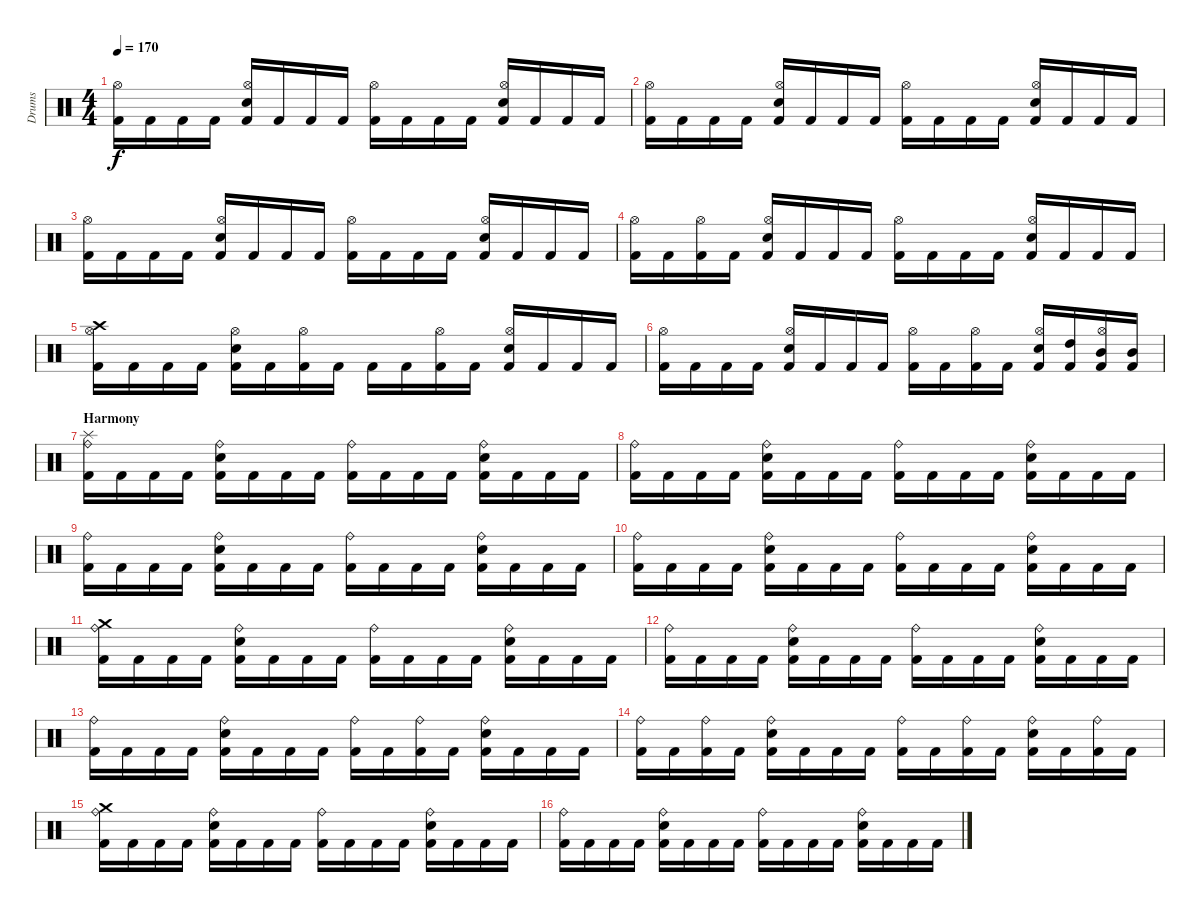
\track ("Drums" "Drums") {instrument percussion}
\staff {score}
\articulation defaults
\ts (4 4)
\tempo 170
\clef neutral
\ks c
("Kick (hit) 2" "Hi-Hat (open)").16{dy f} "Kick (hit) 2".16 "Kick (hit) 2".16 "Kick (hit) 2".16 ("Kick (hit) 2" "Snare (hit) 2" "Hi-Hat (open)").16 "Kick (hit) 2".16 "Kick (hit) 2".16 "Kick (hit) 2".16 ("Kick (hit) 2" "Hi-Hat (open)").16 "Kick (hit) 2".16 "Kick (hit) 2".16 "Kick (hit) 2".16 ("Kick (hit) 2" "Snare (hit) 2" "Hi-Hat (open)").16 "Kick (hit) 2".16 "Kick (hit) 2".16 "Kick (hit) 2".16 |
("Kick (hit) 2" "Hi-Hat (open)").16 "Kick (hit) 2".16 "Kick (hit) 2".16 "Kick (hit) 2".16 ("Kick (hit) 2" "Snare (hit) 2" "Hi-Hat (open)").16 "Kick (hit) 2".16 "Kick (hit) 2".16 "Kick (hit) 2".16 ("Kick (hit) 2" "Hi-Hat (open)").16 "Kick (hit) 2".16 "Kick (hit) 2".16 "Kick (hit) 2".16 ("Kick (hit) 2" "Snare (hit) 2" "Hi-Hat (open)").16 "Kick (hit) 2".16 "Kick (hit) 2".16 "Kick (hit) 2".16 |
("Kick (hit) 2" "Hi-Hat (open)").16 "Kick (hit) 2".16 "Kick (hit) 2".16 "Kick (hit) 2".16 ("Kick (hit) 2" "Snare (hit) 2" "Hi-Hat (open)").16 "Kick (hit) 2".16 "Kick (hit) 2".16 "Kick (hit) 2".16 ("Kick (hit) 2" "Hi-Hat (open)").16 "Kick (hit) 2".16 "Kick (hit) 2".16 "Kick (hit) 2".16 ("Kick (hit) 2" "Snare (hit) 2" "Hi-Hat (open)").16 "Kick (hit) 2".16 "Kick (hit) 2".16 "Kick (hit) 2".16 |
("Kick (hit) 2" "Hi-Hat (open)").16 "Kick (hit) 2".16 ("Kick (hit) 2" "Hi-Hat (open)").16 "Kick (hit) 2".16 ("Kick (hit) 2" "Snare (hit) 2" "Hi-Hat (open)").16 "Kick (hit) 2".16 "Kick (hit) 2".16 "Kick (hit) 2".16 ("Kick (hit) 2" "Hi-Hat (open)").16 "Kick (hit) 2".16 "Kick (hit) 2".16 "Kick (hit) 2".16 ("Kick (hit) 2" "Snare (hit) 2" "Hi-Hat (open)").16 "Kick (hit) 2".16 "Kick (hit) 2".16 "Kick (hit) 2".16 |
("Kick (hit) 2" "Hi-Hat (open)" "Crash high (hit)").16 "Kick (hit) 2".16 "Kick (hit) 2".16 "Kick (hit) 2".16 ("Kick (hit) 2" "Snare (hit) 2" "Hi-Hat (open)").16 "Kick (hit) 2".16 ("Kick (hit) 2" "Hi-Hat (open)").16 "Kick (hit) 2".16 "Kick (hit) 2".16 "Kick (hit) 2".16 ("Kick (hit) 2" "Hi-Hat (open)").16 "Kick (hit) 2".16 ("Kick (hit) 2" "Snare (hit) 2" "Hi-Hat (open)").16 "Kick (hit) 2".16 "Kick (hit) 2".16 "Kick (hit) 2".16 |
("Kick (hit) 2" "Hi-Hat (open)").16 "Kick (hit) 2".16 "Kick (hit) 2".16 "Kick (hit) 2".16 ("Kick (hit) 2" "Snare (hit) 2" "Hi-Hat (open)").16 "Kick (hit) 2".16 "Kick (hit) 2".16 "Kick (hit) 2".16 ("Kick (hit) 2" "Hi-Hat (open)").16 "Kick (hit) 2".16 ("Kick (hit) 2" "Hi-Hat (open)").16 "Kick (hit) 2".16 ("Kick (hit) 2" "Snare (hit) 2" "Hi-Hat (open)").16 ("Kick (hit) 2" "High Tom (hit)").16 ("Kick (hit) 2" "Mid Tom (hit)" "Hi-Hat (open)").16 ("Kick (hit) 2" "Mid Tom (hit)").16 |
\section ("" "Harmony")
("Kick (hit) 2" "Ride (bell)" "Splash (hit)").16 "Kick (hit) 2".16 "Kick (hit) 2".16 "Kick (hit) 2".16 ("Kick (hit) 2" "Snare (hit) 2" "Ride (bell)").16 "Kick (hit) 2".16 "Kick (hit) 2".16 "Kick (hit) 2".16 ("Kick (hit) 2" "Ride (bell)").16 "Kick (hit) 2".16 "Kick (hit) 2".16 "Kick (hit) 2".16 ("Kick (hit) 2" "Snare (hit) 2" "Ride (bell)").16 "Kick (hit) 2".16 "Kick (hit) 2".16 "Kick (hit) 2".16 |
("Kick (hit) 2" "Ride (bell)").16 "Kick (hit) 2".16 "Kick (hit) 2".16 "Kick (hit) 2".16 ("Kick (hit) 2" "Snare (hit) 2" "Ride (bell)").16 "Kick (hit) 2".16 "Kick (hit) 2".16 "Kick (hit) 2".16 ("Kick (hit) 2" "Ride (bell)").16 "Kick (hit) 2".16 "Kick (hit) 2".16 "Kick (hit) 2".16 ("Kick (hit) 2" "Snare (hit) 2" "Ride (bell)").16 "Kick (hit) 2".16 "Kick (hit) 2".16 "Kick (hit) 2".16 |
("Kick (hit) 2" "Ride (bell)").16 "Kick (hit) 2".16 "Kick (hit) 2".16 "Kick (hit) 2".16 ("Kick (hit) 2" "Snare (hit) 2" "Ride (bell)").16 "Kick (hit) 2".16 "Kick (hit) 2".16 "Kick (hit) 2".16 ("Kick (hit) 2" "Ride (bell)").16 "Kick (hit) 2".16 "Kick (hit) 2".16 "Kick (hit) 2".16 ("Kick (hit) 2" "Snare (hit) 2" "Ride (bell)").16 "Kick (hit) 2".16 "Kick (hit) 2".16 "Kick (hit) 2".16 |
("Kick (hit) 2" "Ride (bell)").16 "Kick (hit) 2".16 "Kick (hit) 2".16 "Kick (hit) 2".16 ("Kick (hit) 2" "Snare (hit) 2" "Ride (bell)").16 "Kick (hit) 2".16 "Kick (hit) 2".16 "Kick (hit) 2".16 ("Kick (hit) 2" "Ride (bell)").16 "Kick (hit) 2".16 "Kick (hit) 2".16 "Kick (hit) 2".16 ("Kick (hit) 2" "Snare (hit) 2" "Ride (bell)").16 "Kick (hit) 2".16 "Kick (hit) 2".16 "Kick (hit) 2".16 |
("Kick (hit) 2" "Ride (bell)" "Crash medium (hit)").16 "Kick (hit) 2".16 "Kick (hit) 2".16 "Kick (hit) 2".16 ("Kick (hit) 2" "Snare (hit) 2" "Ride (bell)").16 "Kick (hit) 2".16 "Kick (hit) 2".16 "Kick (hit) 2".16 ("Kick (hit) 2" "Ride (bell)").16 "Kick (hit) 2".16 "Kick (hit) 2".16 "Kick (hit) 2".16 ("Kick (hit) 2" "Snare (hit) 2" "Ride (bell)").16 "Kick (hit) 2".16 "Kick (hit) 2".16 "Kick (hit) 2".16 |
("Kick (hit) 2" "Ride (bell)").16 "Kick (hit) 2".16 "Kick (hit) 2".16 "Kick (hit) 2".16 ("Kick (hit) 2" "Snare (hit) 2" "Ride (bell)").16 "Kick (hit) 2".16 "Kick (hit) 2".16 "Kick (hit) 2".16 ("Kick (hit) 2" "Ride (bell)").16 "Kick (hit) 2".16 "Kick (hit) 2".16 "Kick (hit) 2".16 ("Kick (hit) 2" "Snare (hit) 2" "Ride (bell)").16 "Kick (hit) 2".16 "Kick (hit) 2".16 "Kick (hit) 2".16 |
("Kick (hit) 2" "Ride (bell)").16 "Kick (hit) 2".16 "Kick (hit) 2".16 "Kick (hit) 2".16 ("Kick (hit) 2" "Snare (hit) 2" "Ride (bell)").16 "Kick (hit) 2".16 "Kick (hit) 2".16 "Kick (hit) 2".16 ("Kick (hit) 2" "Ride (bell)").16 "Kick (hit) 2".16 ("Kick (hit) 2" "Ride (bell)").16 "Kick (hit) 2".16 ("Kick (hit) 2" "Snare (hit) 2" "Ride (bell)").16 "Kick (hit) 2".16 "Kick (hit) 2".16 "Kick (hit) 2".16 |
("Kick (hit) 2" "Ride (bell)").16 "Kick (hit) 2".16 ("Kick (hit) 2" "Ride (bell)").16 "Kick (hit) 2".16 ("Kick (hit) 2" "Snare (hit) 2" "Ride (bell)").16 "Kick (hit) 2".16 "Kick (hit) 2".16 "Kick (hit) 2".16 ("Kick (hit) 2" "Ride (bell)").16 "Kick (hit) 2".16 ("Kick (hit) 2" "Ride (bell)").16 "Kick (hit) 2".16 ("Kick (hit) 2" "Snare (hit) 2" "Ride (bell)").16 "Kick (hit) 2".16 ("Kick (hit) 2" "Ride (bell)").16 "Kick (hit) 2".16 |
("Kick (hit) 2" "Ride (bell)" "Crash medium (hit)").16 "Kick (hit) 2".16 "Kick (hit) 2".16 "Kick (hit) 2".16 ("Kick (hit) 2" "Snare (hit) 2" "Ride (bell)").16 "Kick (hit) 2".16 "Kick (hit) 2".16 "Kick (hit) 2".16 ("Kick (hit) 2" "Ride (bell)").16 "Kick (hit) 2".16 "Kick (hit) 2".16 "Kick (hit) 2".16 ("Kick (hit) 2" "Snare (hit) 2" "Ride (bell)").16 "Kick (hit) 2".16 "Kick (hit) 2".16 "Kick (hit) 2".16 |
("Kick (hit) 2" "Ride (bell)").16 "Kick (hit) 2".16 "Kick (hit) 2".16 "Kick (hit) 2".16 ("Kick (hit) 2" "Snare (hit) 2" "Ride (bell)").16 "Kick (hit) 2".16 "Kick (hit) 2".16 "Kick (hit) 2".16 ("Kick (hit) 2" "Ride (bell)").16 "Kick (hit) 2".16 "Kick (hit) 2".16 "Kick (hit) 2".16 ("Kick (hit) 2" "Snare (hit) 2" "Ride (bell)").16 "Kick (hit) 2".16 "Kick (hit) 2".16 "Kick (hit) 2".16
